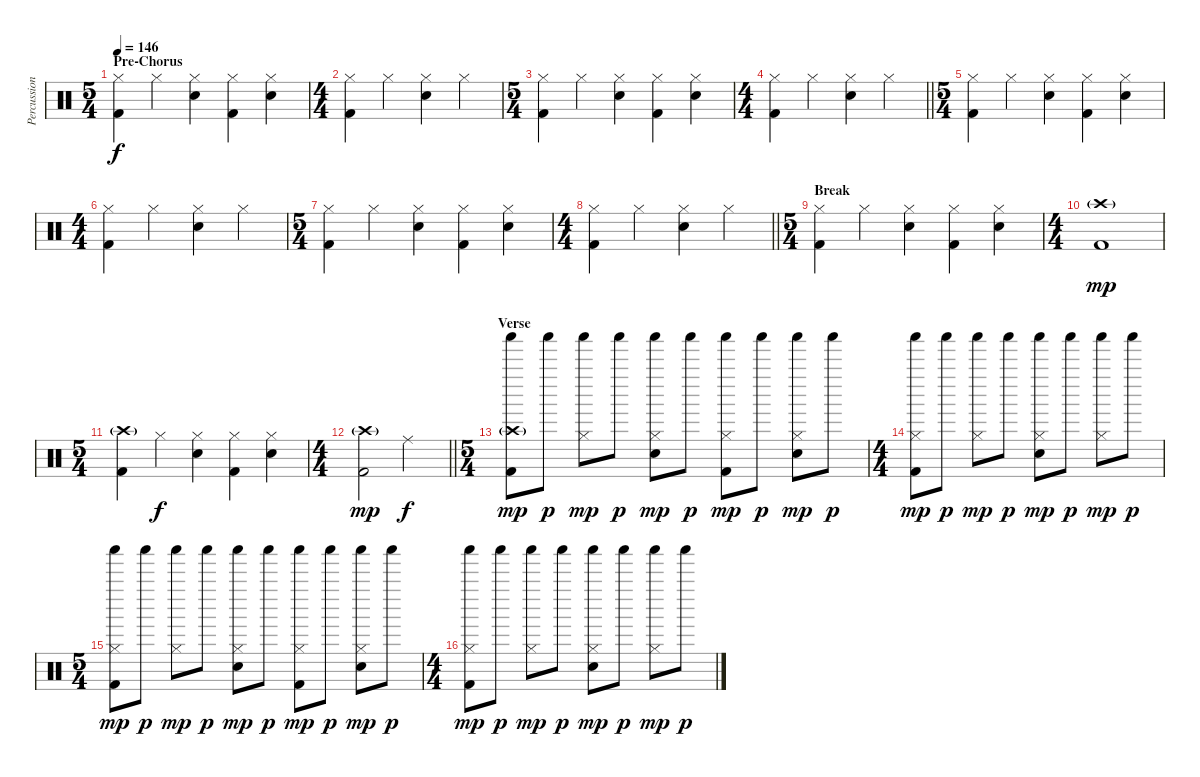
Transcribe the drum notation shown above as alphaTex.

\track ("Percussion" "Percussion") {instrument percussion}
\staff {score}
\articulation defaults
\ts (5 4)
\section ("" "Pre-Chorus")
\tempo 146
\clef neutral
\ks c
("Hi-Hat (closed)" "Kick (hit) 2").4{dy f} "Hi-Hat (closed)".4 ("Hi-Hat (closed)" "Electric Snare (hit)").4 ("Hi-Hat (closed)" "Kick (hit) 2").4 ("Hi-Hat (closed)" "Electric Snare (hit)").4 |
\ts (4 4)
("Hi-Hat (closed)" "Kick (hit) 2").4 "Hi-Hat (closed)".4 ("Hi-Hat (closed)" "Electric Snare (hit)").4 "Hi-Hat (closed)".4 |
\ts (5 4)
("Hi-Hat (closed)" "Kick (hit) 2").4 "Hi-Hat (closed)".4 ("Hi-Hat (closed)" "Electric Snare (hit)").4 ("Hi-Hat (closed)" "Kick (hit) 2").4 ("Hi-Hat (closed)" "Electric Snare (hit)").4 |
\ts (4 4)
\barLineRight lightlight
("Hi-Hat (closed)" "Kick (hit) 2").4 "Hi-Hat (closed)".4 ("Hi-Hat (closed)" "Electric Snare (hit)").4 "Hi-Hat (closed)".4 |
\ts (5 4)
("Hi-Hat (closed)" "Kick (hit) 2").4 "Hi-Hat (closed)".4 ("Hi-Hat (closed)" "Electric Snare (hit)").4 ("Hi-Hat (closed)" "Kick (hit) 2").4 ("Hi-Hat (closed)" "Electric Snare (hit)").4 |
\ts (4 4)
("Hi-Hat (closed)" "Kick (hit) 2").4 "Hi-Hat (closed)".4 ("Hi-Hat (closed)" "Electric Snare (hit)").4 "Hi-Hat (closed)".4 |
\ts (5 4)
("Hi-Hat (closed)" "Kick (hit) 2").4 "Hi-Hat (closed)".4 ("Hi-Hat (closed)" "Electric Snare (hit)").4 ("Hi-Hat (closed)" "Kick (hit) 2").4 ("Hi-Hat (closed)" "Electric Snare (hit)").4 |
\ts (4 4)
\barLineRight lightlight
("Hi-Hat (closed)" "Kick (hit) 2").4 "Hi-Hat (closed)".4 ("Hi-Hat (closed)" "Electric Snare (hit)").4 "Hi-Hat (closed)".4 |
\ts (5 4)
\section ("" "Break")
("Hi-Hat (closed)" "Kick (hit) 2").4 "Hi-Hat (closed)".4 ("Hi-Hat (closed)" "Electric Snare (hit)").4 ("Hi-Hat (closed)" "Kick (hit) 2").4 ("Hi-Hat (closed)" "Electric Snare (hit)").4 |
\ts (4 4)
("Crash high (hit)"{g} "Kick (hit) 2").1{dy mp} |
\ts (5 4)
("Crash high (hit)"{g} "Kick (hit) 2").4 "Hi-Hat (closed)".4{dy f} ("Hi-Hat (closed)" "Electric Snare (hit)").4 ("Hi-Hat (closed)" "Kick (hit) 2").4 ("Hi-Hat (closed)" "Electric Snare (hit)").4 |
\ts (4 4)
\barLineRight lightlight
("Crash high (hit)"{g} "Kick (hit) 2").2{dy mp} "Ride (middle)".2{dy f} |
\ts (5 4)
\section ("" "Verse")
("Crash high (hit)"{g} "Shaker (hit)" "Kick (hit) 2").8{dy mp} "Shaker (hit)".8{dy p} ("Hi-Hat (closed)" "Shaker (hit)").8{dy mp} "Shaker (hit)".8{dy p} ("Hi-Hat (closed)" "Shaker (hit)" "Electric Snare (hit)").8{dy mp} "Shaker (hit)".8{dy p} ("Hi-Hat (closed)" "Shaker (hit)" "Kick (hit) 2").8{dy mp} "Shaker (hit)".8{dy p} ("Hi-Hat (closed)" "Shaker (hit)" "Electric Snare (hit)").8{dy mp} "Shaker (hit)".8{dy p} |
\ts (4 4)
("Hi-Hat (closed)" "Shaker (hit)" "Kick (hit) 2").8{dy mp} "Shaker (hit)".8{dy p} ("Hi-Hat (closed)" "Shaker (hit)").8{dy mp} "Shaker (hit)".8{dy p} ("Hi-Hat (closed)" "Shaker (hit)" "Electric Snare (hit)").8{dy mp} "Shaker (hit)".8{dy p} ("Hi-Hat (closed)" "Shaker (hit)").8{dy mp} "Shaker (hit)".8{dy p} |
\ts (5 4)
("Hi-Hat (closed)" "Shaker (hit)" "Kick (hit) 2").8{dy mp} "Shaker (hit)".8{dy p} ("Hi-Hat (closed)" "Shaker (hit)").8{dy mp} "Shaker (hit)".8{dy p} ("Hi-Hat (closed)" "Shaker (hit)" "Electric Snare (hit)").8{dy mp} "Shaker (hit)".8{dy p} ("Hi-Hat (closed)" "Shaker (hit)" "Kick (hit) 2").8{dy mp} "Shaker (hit)".8{dy p} ("Hi-Hat (closed)" "Shaker (hit)" "Electric Snare (hit)").8{dy mp} "Shaker (hit)".8{dy p} |
\ts (4 4)
("Hi-Hat (closed)" "Shaker (hit)" "Kick (hit) 2").8{dy mp} "Shaker (hit)".8{dy p} ("Hi-Hat (closed)" "Shaker (hit)").8{dy mp} "Shaker (hit)".8{dy p} ("Hi-Hat (closed)" "Shaker (hit)" "Electric Snare (hit)").8{dy mp} "Shaker (hit)".8{dy p} ("Hi-Hat (closed)" "Shaker (hit)").8{dy mp} "Shaker (hit)".8{dy p}
